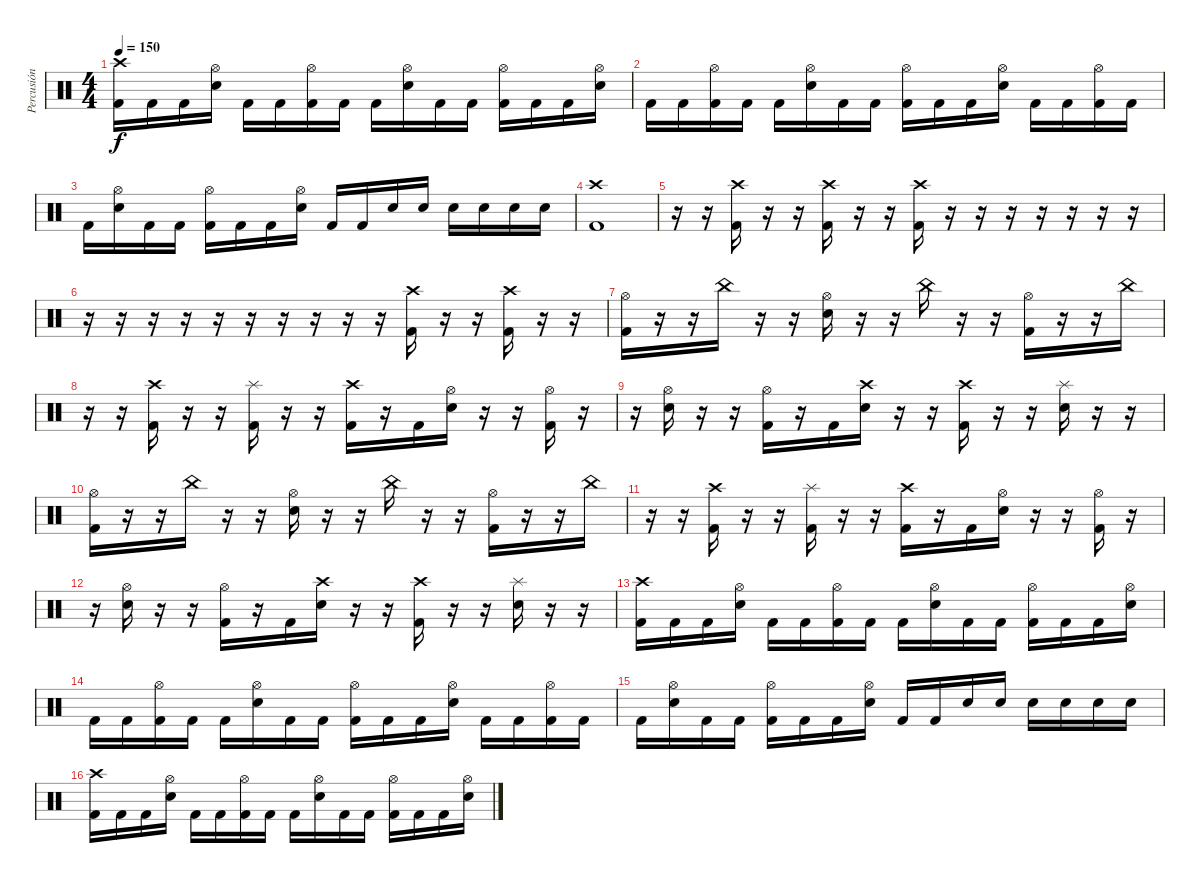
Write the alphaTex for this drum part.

\track ("Percusión" "Percusión") {instrument percussion}
\staff {score}
\articulation defaults
\ts (4 4)
\tempo 150
\clef neutral
\ks c
("Crash high (hit)" "Kick (hit) 2").16{dy f} "Kick (hit) 2".16 "Kick (hit) 2".16 ("Hi-Hat (open)" "Electric Snare (hit)").16 "Kick (hit) 2".16 "Kick (hit) 2".16 ("Hi-Hat (open)" "Kick (hit) 2").16 "Kick (hit) 2".16 "Kick (hit) 2".16 ("Hi-Hat (open)" "Electric Snare (hit)").16 "Kick (hit) 2".16 "Kick (hit) 2".16 ("Hi-Hat (open)" "Kick (hit) 2").16 "Kick (hit) 2".16 "Kick (hit) 2".16 ("Hi-Hat (open)" "Electric Snare (hit)").16 |
"Kick (hit) 2".16 "Kick (hit) 2".16 ("Hi-Hat (open)" "Kick (hit) 2").16 "Kick (hit) 2".16 "Kick (hit) 2".16 ("Hi-Hat (open)" "Electric Snare (hit)").16 "Kick (hit) 2".16 "Kick (hit) 2".16 ("Hi-Hat (open)" "Kick (hit) 2").16 "Kick (hit) 2".16 "Kick (hit) 2".16 ("Hi-Hat (open)" "Electric Snare (hit)").16 "Kick (hit) 2".16 "Kick (hit) 2".16 ("Hi-Hat (open)" "Kick (hit) 2").16 "Kick (hit) 2".16 |
"Kick (hit) 2".16 ("Hi-Hat (open)" "Electric Snare (hit)").16 "Kick (hit) 2".16 "Kick (hit) 2".16 ("Hi-Hat (open)" "Kick (hit) 2").16 "Kick (hit) 2".16 "Kick (hit) 2".16 ("Hi-Hat (open)" "Electric Snare (hit)").16 "Kick (hit) 2".16 "Kick (hit) 2".16 "Electric Snare (hit)".16 "Electric Snare (hit)".16 "Electric Snare (hit)".16 "Electric Snare (hit)".16 "Electric Snare (hit)".16 "Electric Snare (hit)".16 |
("Crash high (hit)" "Kick (hit) 2").1 |
r.16 r.16 ("Crash high (hit)" "Kick (hit) 2").16 r.16 r.16 ("Crash high (hit)" "Kick (hit) 2").16 r.16 r.16 ("Crash high (hit)" "Kick (hit) 2").16 r.16 r.16 r.16 r.16 r.16 r.16 r.16 |
r.16 r.16 r.16 r.16 r.16 r.16 r.16 r.16 r.16 r.16 ("Crash high (hit)" "Kick (hit) 2").16 r.16 r.16 ("Crash high (hit)" "Kick (hit) 2").16 r.16 r.16 |
("Hi-Hat (open)" "Kick (hit) 2").16 r.16 r.16 "China (hit)".16 r.16 r.16 ("Hi-Hat (open)" "Electric Snare (hit)").16 r.16 r.16 "China (hit)".16 r.16 r.16 ("Hi-Hat (open)" "Kick (hit) 2").16 r.16 r.16 "China (hit)".16 |
r.16 r.16 ("Crash high (hit)" "Kick (hit) 2").16 r.16 r.16 ("Splash (hit)" "Kick (hit) 2").16 r.16 r.16 ("Crash high (hit)" "Kick (hit) 2").16 r.16 "Kick (hit) 2".16 ("Hi-Hat (open)" "Electric Snare (hit)").16 r.16 r.16 ("Hi-Hat (open)" "Kick (hit) 2").16 r.16 |
r.16 ("Hi-Hat (open)" "Electric Snare (hit)").16 r.16 r.16 ("Hi-Hat (open)" "Kick (hit) 2").16 r.16 "Kick (hit) 2".16 ("Crash high (hit)" "Electric Snare (hit)").16 r.16 r.16 ("Crash high (hit)" "Kick (hit) 2").16 r.16 r.16 ("Splash (hit)" "Electric Snare (hit)").16 r.16 r.16 |
("Hi-Hat (open)" "Kick (hit) 2").16 r.16 r.16 "China (hit)".16 r.16 r.16 ("Hi-Hat (open)" "Electric Snare (hit)").16 r.16 r.16 "China (hit)".16 r.16 r.16 ("Hi-Hat (open)" "Kick (hit) 2").16 r.16 r.16 "China (hit)".16 |
r.16 r.16 ("Crash high (hit)" "Kick (hit) 2").16 r.16 r.16 ("Splash (hit)" "Kick (hit) 2").16 r.16 r.16 ("Crash high (hit)" "Kick (hit) 2").16 r.16 "Kick (hit) 2".16 ("Hi-Hat (open)" "Electric Snare (hit)").16 r.16 r.16 ("Hi-Hat (open)" "Kick (hit) 2").16 r.16 |
r.16 ("Hi-Hat (open)" "Electric Snare (hit)").16 r.16 r.16 ("Hi-Hat (open)" "Kick (hit) 2").16 r.16 "Kick (hit) 2".16 ("Crash high (hit)" "Electric Snare (hit)").16 r.16 r.16 ("Crash high (hit)" "Kick (hit) 2").16 r.16 r.16 ("Splash (hit)" "Electric Snare (hit)").16 r.16 r.16 |
("Crash high (hit)" "Kick (hit) 2").16 "Kick (hit) 2".16 "Kick (hit) 2".16 ("Hi-Hat (open)" "Electric Snare (hit)").16 "Kick (hit) 2".16 "Kick (hit) 2".16 ("Hi-Hat (open)" "Kick (hit) 2").16 "Kick (hit) 2".16 "Kick (hit) 2".16 ("Hi-Hat (open)" "Electric Snare (hit)").16 "Kick (hit) 2".16 "Kick (hit) 2".16 ("Hi-Hat (open)" "Kick (hit) 2").16 "Kick (hit) 2".16 "Kick (hit) 2".16 ("Hi-Hat (open)" "Electric Snare (hit)").16 |
"Kick (hit) 2".16 "Kick (hit) 2".16 ("Hi-Hat (open)" "Kick (hit) 2").16 "Kick (hit) 2".16 "Kick (hit) 2".16 ("Hi-Hat (open)" "Electric Snare (hit)").16 "Kick (hit) 2".16 "Kick (hit) 2".16 ("Hi-Hat (open)" "Kick (hit) 2").16 "Kick (hit) 2".16 "Kick (hit) 2".16 ("Hi-Hat (open)" "Electric Snare (hit)").16 "Kick (hit) 2".16 "Kick (hit) 2".16 ("Hi-Hat (open)" "Kick (hit) 2").16 "Kick (hit) 2".16 |
"Kick (hit) 2".16 ("Hi-Hat (open)" "Electric Snare (hit)").16 "Kick (hit) 2".16 "Kick (hit) 2".16 ("Hi-Hat (open)" "Kick (hit) 2").16 "Kick (hit) 2".16 "Kick (hit) 2".16 ("Hi-Hat (open)" "Electric Snare (hit)").16 "Kick (hit) 2".16 "Kick (hit) 2".16 "Electric Snare (hit)".16 "Electric Snare (hit)".16 "Electric Snare (hit)".16 "Electric Snare (hit)".16 "Electric Snare (hit)".16 "Electric Snare (hit)".16 |
("Crash high (hit)" "Kick (hit) 2").16 "Kick (hit) 2".16 "Kick (hit) 2".16 ("Hi-Hat (open)" "Electric Snare (hit)").16 "Kick (hit) 2".16 "Kick (hit) 2".16 ("Hi-Hat (open)" "Kick (hit) 2").16 "Kick (hit) 2".16 "Kick (hit) 2".16 ("Hi-Hat (open)" "Electric Snare (hit)").16 "Kick (hit) 2".16 "Kick (hit) 2".16 ("Hi-Hat (open)" "Kick (hit) 2").16 "Kick (hit) 2".16 "Kick (hit) 2".16 ("Hi-Hat (open)" "Electric Snare (hit)").16
